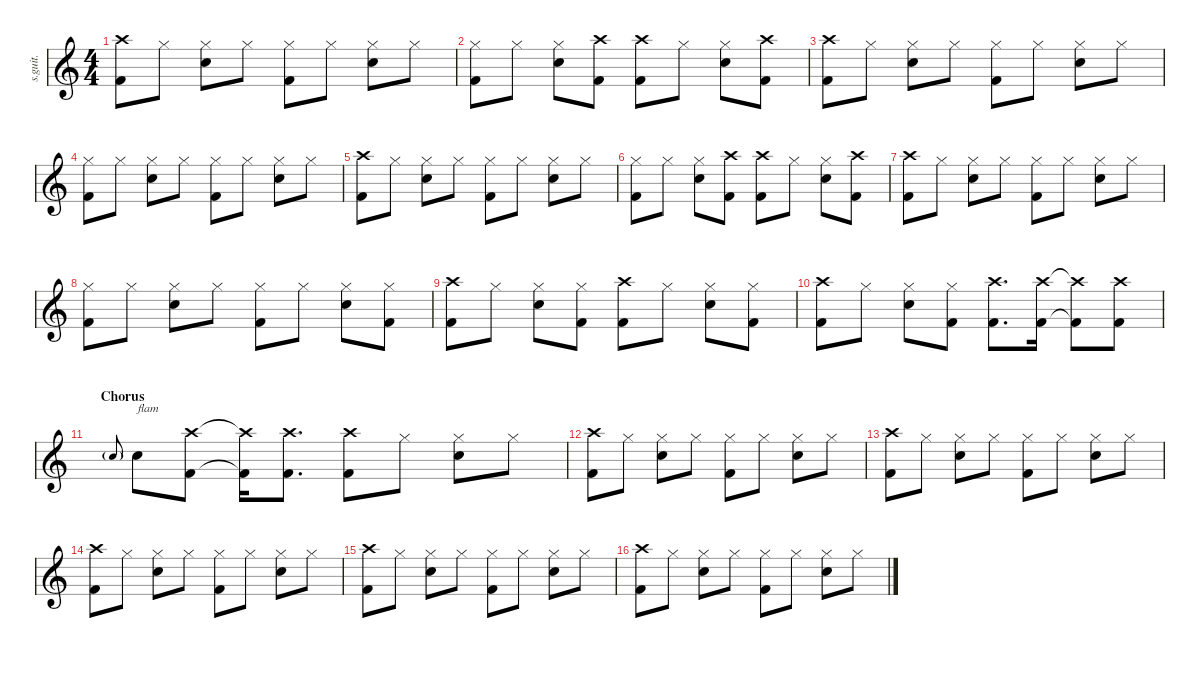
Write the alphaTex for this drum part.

\defaultSystemsLayout 4
\hideDynamics
\bracketExtendMode nobrackets
\track ("Phil Rudd - Drums" "s.guit.") {instrument percussion}
\staff {score}
\articulation defaults
\ts (4 4)
\tempo (95 hide)
\clef g2
\ks c
("Crash high (hit)" "Kick (hit) 2").8{lyrics (0 "") lyrics (1 "") lyrics (2 "") lyrics (3 "") lyrics (4 "") dy f} "Hi-Hat (closed)".8{lyrics (0 "") lyrics (1 "") lyrics (2 "") lyrics (3 "") lyrics (4 "")} ("Hi-Hat (closed)" "Snare (hit) 2").8{lyrics (0 "") lyrics (1 "") lyrics (2 "") lyrics (3 "") lyrics (4 "")} "Hi-Hat (closed)".8{lyrics (0 "") lyrics (1 "") lyrics (2 "") lyrics (3 "") lyrics (4 "")} ("Hi-Hat (closed)" "Kick (hit) 2").8{lyrics (0 "") lyrics (1 "") lyrics (2 "") lyrics (3 "") lyrics (4 "")} "Hi-Hat (closed)".8{lyrics (0 "") lyrics (1 "") lyrics (2 "") lyrics (3 "") lyrics (4 "")} ("Hi-Hat (closed)" "Snare (hit) 2").8{lyrics (0 "") lyrics (1 "") lyrics (2 "") lyrics (3 "") lyrics (4 "")} "Hi-Hat (closed)".8{lyrics (0 "") lyrics (1 "") lyrics (2 "") lyrics (3 "") lyrics (4 "")} |
("Hi-Hat (closed)" "Kick (hit) 2").8{lyrics (0 "") lyrics (1 "") lyrics (2 "") lyrics (3 "") lyrics (4 "")} "Hi-Hat (closed)".8{lyrics (0 "") lyrics (1 "") lyrics (2 "") lyrics (3 "") lyrics (4 "")} ("Hi-Hat (closed)" "Snare (hit) 2").8{lyrics (0 "") lyrics (1 "") lyrics (2 "") lyrics (3 "") lyrics (4 "")} ("Crash high (hit)" "Kick (hit) 2").8{lyrics (0 "") lyrics (1 "") lyrics (2 "") lyrics (3 "") lyrics (4 "")} ("Crash high (hit)" "Kick (hit) 2").8{lyrics (0 "") lyrics (1 "") lyrics (2 "") lyrics (3 "") lyrics (4 "")} "Hi-Hat (closed)".8{lyrics (0 "") lyrics (1 "") lyrics (2 "") lyrics (3 "") lyrics (4 "")} ("Hi-Hat (closed)" "Snare (hit) 2").8{lyrics (0 "") lyrics (1 "") lyrics (2 "") lyrics (3 "") lyrics (4 "")} ("Crash high (hit)" "Kick (hit) 2").8{lyrics (0 "") lyrics (1 "") lyrics (2 "") lyrics (3 "") lyrics (4 "")} |
("Crash high (hit)" "Kick (hit) 2").8{lyrics (0 "") lyrics (1 "") lyrics (2 "") lyrics (3 "") lyrics (4 "")} "Hi-Hat (closed)".8{lyrics (0 "") lyrics (1 "") lyrics (2 "") lyrics (3 "") lyrics (4 "")} ("Hi-Hat (closed)" "Snare (hit) 2").8{lyrics (0 "") lyrics (1 "") lyrics (2 "") lyrics (3 "") lyrics (4 "")} "Hi-Hat (closed)".8{lyrics (0 "") lyrics (1 "") lyrics (2 "") lyrics (3 "") lyrics (4 "")} ("Hi-Hat (closed)" "Kick (hit) 2").8{lyrics (0 "") lyrics (1 "") lyrics (2 "") lyrics (3 "") lyrics (4 "")} "Hi-Hat (closed)".8{lyrics (0 "") lyrics (1 "") lyrics (2 "") lyrics (3 "") lyrics (4 "")} ("Hi-Hat (closed)" "Snare (hit) 2").8{lyrics (0 "") lyrics (1 "") lyrics (2 "") lyrics (3 "") lyrics (4 "")} "Hi-Hat (closed)".8{lyrics (0 "") lyrics (1 "") lyrics (2 "") lyrics (3 "") lyrics (4 "")} |
("Hi-Hat (closed)" "Kick (hit) 2").8{lyrics (0 "") lyrics (1 "") lyrics (2 "") lyrics (3 "") lyrics (4 "")} "Hi-Hat (closed)".8{lyrics (0 "") lyrics (1 "") lyrics (2 "") lyrics (3 "") lyrics (4 "")} ("Hi-Hat (closed)" "Snare (hit) 2").8{lyrics (0 "") lyrics (1 "") lyrics (2 "") lyrics (3 "") lyrics (4 "")} "Hi-Hat (closed)".8{lyrics (0 "") lyrics (1 "") lyrics (2 "") lyrics (3 "") lyrics (4 "")} ("Hi-Hat (closed)" "Kick (hit) 2").8{lyrics (0 "") lyrics (1 "") lyrics (2 "") lyrics (3 "") lyrics (4 "")} "Hi-Hat (closed)".8{lyrics (0 "") lyrics (1 "") lyrics (2 "") lyrics (3 "") lyrics (4 "")} ("Hi-Hat (closed)" "Snare (hit) 2").8{lyrics (0 "") lyrics (1 "") lyrics (2 "") lyrics (3 "") lyrics (4 "")} "Hi-Hat (closed)".8{lyrics (0 "") lyrics (1 "") lyrics (2 "") lyrics (3 "") lyrics (4 "")} |
("Crash high (hit)" "Kick (hit) 2").8{lyrics (0 "") lyrics (1 "") lyrics (2 "") lyrics (3 "") lyrics (4 "")} "Hi-Hat (closed)".8{lyrics (0 "") lyrics (1 "") lyrics (2 "") lyrics (3 "") lyrics (4 "")} ("Hi-Hat (closed)" "Snare (hit) 2").8{lyrics (0 "") lyrics (1 "") lyrics (2 "") lyrics (3 "") lyrics (4 "")} "Hi-Hat (closed)".8{lyrics (0 "") lyrics (1 "") lyrics (2 "") lyrics (3 "") lyrics (4 "")} ("Hi-Hat (closed)" "Kick (hit) 2").8{lyrics (0 "") lyrics (1 "") lyrics (2 "") lyrics (3 "") lyrics (4 "")} "Hi-Hat (closed)".8{lyrics (0 "") lyrics (1 "") lyrics (2 "") lyrics (3 "") lyrics (4 "")} ("Hi-Hat (closed)" "Snare (hit) 2").8{lyrics (0 "") lyrics (1 "") lyrics (2 "") lyrics (3 "") lyrics (4 "")} "Hi-Hat (closed)".8{lyrics (0 "") lyrics (1 "") lyrics (2 "") lyrics (3 "") lyrics (4 "")} |
("Hi-Hat (closed)" "Kick (hit) 2").8{lyrics (0 "") lyrics (1 "") lyrics (2 "") lyrics (3 "") lyrics (4 "")} "Hi-Hat (closed)".8{lyrics (0 "") lyrics (1 "") lyrics (2 "") lyrics (3 "") lyrics (4 "")} ("Hi-Hat (closed)" "Snare (hit) 2").8{lyrics (0 "") lyrics (1 "") lyrics (2 "") lyrics (3 "") lyrics (4 "")} ("Crash high (hit)" "Kick (hit) 2").8{lyrics (0 "") lyrics (1 "") lyrics (2 "") lyrics (3 "") lyrics (4 "")} ("Crash high (hit)" "Kick (hit) 2").8{lyrics (0 "") lyrics (1 "") lyrics (2 "") lyrics (3 "") lyrics (4 "")} "Hi-Hat (closed)".8{lyrics (0 "") lyrics (1 "") lyrics (2 "") lyrics (3 "") lyrics (4 "")} ("Hi-Hat (closed)" "Snare (hit) 2").8{lyrics (0 "") lyrics (1 "") lyrics (2 "") lyrics (3 "") lyrics (4 "")} ("Crash high (hit)" "Kick (hit) 2").8{lyrics (0 "") lyrics (1 "") lyrics (2 "") lyrics (3 "") lyrics (4 "")} |
("Crash high (hit)" "Kick (hit) 2").8{lyrics (0 "") lyrics (1 "") lyrics (2 "") lyrics (3 "") lyrics (4 "")} "Hi-Hat (closed)".8{lyrics (0 "") lyrics (1 "") lyrics (2 "") lyrics (3 "") lyrics (4 "")} ("Hi-Hat (closed)" "Snare (hit) 2").8{lyrics (0 "") lyrics (1 "") lyrics (2 "") lyrics (3 "") lyrics (4 "")} "Hi-Hat (closed)".8{lyrics (0 "") lyrics (1 "") lyrics (2 "") lyrics (3 "") lyrics (4 "")} ("Hi-Hat (closed)" "Kick (hit) 2").8{lyrics (0 "") lyrics (1 "") lyrics (2 "") lyrics (3 "") lyrics (4 "")} "Hi-Hat (closed)".8{lyrics (0 "") lyrics (1 "") lyrics (2 "") lyrics (3 "") lyrics (4 "")} ("Hi-Hat (closed)" "Snare (hit) 2").8{lyrics (0 "") lyrics (1 "") lyrics (2 "") lyrics (3 "") lyrics (4 "")} "Hi-Hat (closed)".8{lyrics (0 "") lyrics (1 "") lyrics (2 "") lyrics (3 "") lyrics (4 "")} |
("Hi-Hat (closed)" "Kick (hit) 2").8{lyrics (0 "") lyrics (1 "") lyrics (2 "") lyrics (3 "") lyrics (4 "")} "Hi-Hat (closed)".8{lyrics (0 "") lyrics (1 "") lyrics (2 "") lyrics (3 "") lyrics (4 "")} ("Hi-Hat (closed)" "Snare (hit) 2").8{lyrics (0 "") lyrics (1 "") lyrics (2 "") lyrics (3 "") lyrics (4 "")} "Hi-Hat (closed)".8{lyrics (0 "") lyrics (1 "") lyrics (2 "") lyrics (3 "") lyrics (4 "")} ("Hi-Hat (closed)" "Kick (hit) 2").8{lyrics (0 "") lyrics (1 "") lyrics (2 "") lyrics (3 "") lyrics (4 "")} "Hi-Hat (closed)".8{lyrics (0 "") lyrics (1 "") lyrics (2 "") lyrics (3 "") lyrics (4 "")} ("Hi-Hat (closed)" "Snare (hit) 2").8{lyrics (0 "") lyrics (1 "") lyrics (2 "") lyrics (3 "") lyrics (4 "")} ("Hi-Hat (closed)" "Kick (hit) 2").8{lyrics (0 "") lyrics (1 "") lyrics (2 "") lyrics (3 "") lyrics (4 "")} |
\tempo (96 hide)
("Crash high (hit)" "Kick (hit) 2").8{lyrics (0 "") lyrics (1 "") lyrics (2 "") lyrics (3 "") lyrics (4 "")} "Hi-Hat (closed)".8{lyrics (0 "") lyrics (1 "") lyrics (2 "") lyrics (3 "") lyrics (4 "")} ("Hi-Hat (closed)" "Snare (hit) 2").8{lyrics (0 "") lyrics (1 "") lyrics (2 "") lyrics (3 "") lyrics (4 "")} ("Hi-Hat (closed)" "Kick (hit) 2").8{lyrics (0 "") lyrics (1 "") lyrics (2 "") lyrics (3 "") lyrics (4 "")} ("Crash high (hit)" "Kick (hit) 2").8{lyrics (0 "") lyrics (1 "") lyrics (2 "") lyrics (3 "") lyrics (4 "")} "Hi-Hat (closed)".8{lyrics (0 "") lyrics (1 "") lyrics (2 "") lyrics (3 "") lyrics (4 "")} ("Hi-Hat (closed)" "Snare (hit) 2").8{lyrics (0 "") lyrics (1 "") lyrics (2 "") lyrics (3 "") lyrics (4 "")} ("Hi-Hat (closed)" "Kick (hit) 2").8{lyrics (0 "") lyrics (1 "") lyrics (2 "") lyrics (3 "") lyrics (4 "")} |
("Crash high (hit)" "Kick (hit) 2").8{lyrics (0 "") lyrics (1 "") lyrics (2 "") lyrics (3 "") lyrics (4 "")} "Hi-Hat (closed)".8{lyrics (0 "") lyrics (1 "") lyrics (2 "") lyrics (3 "") lyrics (4 "")} ("Hi-Hat (closed)" "Snare (hit) 2").8{lyrics (0 "") lyrics (1 "") lyrics (2 "") lyrics (3 "") lyrics (4 "")} ("Hi-Hat (closed)" "Kick (hit) 2").8{lyrics (0 "") lyrics (1 "") lyrics (2 "") lyrics (3 "") lyrics (4 "")} ("Crash high (hit)" "Kick (hit) 2").8{d lyrics (0 "") lyrics (1 "") lyrics (2 "") lyrics (3 "") lyrics (4 "")} ("Crash high (hit)" "Kick (hit) 2").16{lyrics (0 "") lyrics (1 "") lyrics (2 "") lyrics (3 "") lyrics (4 "")} ("Crash high (hit)"{t} "Kick (hit) 2"{t}).8{lyrics (0 "") lyrics (1 "") lyrics (2 "") lyrics (3 "") lyrics (4 "")} ("Crash high (hit)" "Kick (hit) 2").8{lyrics (0 "") lyrics (1 "") lyrics (2 "") lyrics (3 "") lyrics (4 "")} |
\section ("" "Chorus")
"Snare (hit) 2"{g}.8{lyrics (0 "") lyrics (1 "") lyrics (2 "") lyrics (3 "") lyrics (4 "") gr onbeat} "Snare (hit) 2".8{txt "flam" lyrics (0 "") lyrics (1 "") lyrics (2 "") lyrics (3 "") lyrics (4 "")} ("Crash high (hit)" "Kick (hit) 2").8{lyrics (0 "") lyrics (1 "") lyrics (2 "") lyrics (3 "") lyrics (4 "")} ("Crash high (hit)"{t} "Kick (hit) 2"{t}).16{lyrics (0 "") lyrics (1 "") lyrics (2 "") lyrics (3 "") lyrics (4 "")} ("Crash high (hit)" "Kick (hit) 2").8{d lyrics (0 "") lyrics (1 "") lyrics (2 "") lyrics (3 "") lyrics (4 "")} ("Crash high (hit)" "Kick (hit) 2").8{lyrics (0 "") lyrics (1 "") lyrics (2 "") lyrics (3 "") lyrics (4 "")} "Hi-Hat (closed)".8{lyrics (0 "") lyrics (1 "") lyrics (2 "") lyrics (3 "") lyrics (4 "")} ("Hi-Hat (closed)" "Snare (hit) 2").8{lyrics (0 "") lyrics (1 "") lyrics (2 "") lyrics (3 "") lyrics (4 "")} "Hi-Hat (closed)".8{lyrics (0 "") lyrics (1 "") lyrics (2 "") lyrics (3 "") lyrics (4 "")} |
("Crash high (hit)" "Kick (hit) 2").8{lyrics (0 "") lyrics (1 "") lyrics (2 "") lyrics (3 "") lyrics (4 "")} "Hi-Hat (closed)".8{lyrics (0 "") lyrics (1 "") lyrics (2 "") lyrics (3 "") lyrics (4 "")} ("Hi-Hat (closed)" "Snare (hit) 2").8{lyrics (0 "") lyrics (1 "") lyrics (2 "") lyrics (3 "") lyrics (4 "")} "Hi-Hat (closed)".8{lyrics (0 "") lyrics (1 "") lyrics (2 "") lyrics (3 "") lyrics (4 "")} ("Hi-Hat (closed)" "Kick (hit) 2").8{lyrics (0 "") lyrics (1 "") lyrics (2 "") lyrics (3 "") lyrics (4 "")} "Hi-Hat (closed)".8{lyrics (0 "") lyrics (1 "") lyrics (2 "") lyrics (3 "") lyrics (4 "")} ("Hi-Hat (closed)" "Snare (hit) 2").8{lyrics (0 "") lyrics (1 "") lyrics (2 "") lyrics (3 "") lyrics (4 "")} "Hi-Hat (closed)".8{lyrics (0 "") lyrics (1 "") lyrics (2 "") lyrics (3 "") lyrics (4 "")} |
("Crash high (hit)" "Kick (hit) 2").8{lyrics (0 "") lyrics (1 "") lyrics (2 "") lyrics (3 "") lyrics (4 "")} "Hi-Hat (closed)".8{lyrics (0 "") lyrics (1 "") lyrics (2 "") lyrics (3 "") lyrics (4 "")} ("Hi-Hat (closed)" "Snare (hit) 2").8{lyrics (0 "") lyrics (1 "") lyrics (2 "") lyrics (3 "") lyrics (4 "")} "Hi-Hat (closed)".8{lyrics (0 "") lyrics (1 "") lyrics (2 "") lyrics (3 "") lyrics (4 "")} ("Hi-Hat (closed)" "Kick (hit) 2").8{lyrics (0 "") lyrics (1 "") lyrics (2 "") lyrics (3 "") lyrics (4 "")} "Hi-Hat (closed)".8{lyrics (0 "") lyrics (1 "") lyrics (2 "") lyrics (3 "") lyrics (4 "")} ("Hi-Hat (closed)" "Snare (hit) 2").8{lyrics (0 "") lyrics (1 "") lyrics (2 "") lyrics (3 "") lyrics (4 "")} "Hi-Hat (closed)".8{lyrics (0 "") lyrics (1 "") lyrics (2 "") lyrics (3 "") lyrics (4 "")} |
("Crash high (hit)" "Kick (hit) 2").8{lyrics (0 "") lyrics (1 "") lyrics (2 "") lyrics (3 "") lyrics (4 "")} "Hi-Hat (closed)".8{lyrics (0 "") lyrics (1 "") lyrics (2 "") lyrics (3 "") lyrics (4 "")} ("Hi-Hat (closed)" "Snare (hit) 2").8{lyrics (0 "") lyrics (1 "") lyrics (2 "") lyrics (3 "") lyrics (4 "")} "Hi-Hat (closed)".8{lyrics (0 "") lyrics (1 "") lyrics (2 "") lyrics (3 "") lyrics (4 "")} ("Hi-Hat (closed)" "Kick (hit) 2").8{lyrics (0 "") lyrics (1 "") lyrics (2 "") lyrics (3 "") lyrics (4 "")} "Hi-Hat (closed)".8{lyrics (0 "") lyrics (1 "") lyrics (2 "") lyrics (3 "") lyrics (4 "")} ("Hi-Hat (closed)" "Snare (hit) 2").8{lyrics (0 "") lyrics (1 "") lyrics (2 "") lyrics (3 "") lyrics (4 "")} "Hi-Hat (closed)".8{lyrics (0 "") lyrics (1 "") lyrics (2 "") lyrics (3 "") lyrics (4 "")} |
("Crash high (hit)" "Kick (hit) 2").8{lyrics (0 "") lyrics (1 "") lyrics (2 "") lyrics (3 "") lyrics (4 "")} "Hi-Hat (closed)".8{lyrics (0 "") lyrics (1 "") lyrics (2 "") lyrics (3 "") lyrics (4 "")} ("Hi-Hat (closed)" "Snare (hit) 2").8{lyrics (0 "") lyrics (1 "") lyrics (2 "") lyrics (3 "") lyrics (4 "")} "Hi-Hat (closed)".8{lyrics (0 "") lyrics (1 "") lyrics (2 "") lyrics (3 "") lyrics (4 "")} ("Hi-Hat (closed)" "Kick (hit) 2").8{lyrics (0 "") lyrics (1 "") lyrics (2 "") lyrics (3 "") lyrics (4 "")} "Hi-Hat (closed)".8{lyrics (0 "") lyrics (1 "") lyrics (2 "") lyrics (3 "") lyrics (4 "")} ("Hi-Hat (closed)" "Snare (hit) 2").8{lyrics (0 "") lyrics (1 "") lyrics (2 "") lyrics (3 "") lyrics (4 "")} "Hi-Hat (closed)".8{lyrics (0 "") lyrics (1 "") lyrics (2 "") lyrics (3 "") lyrics (4 "")} |
\tempo (97 hide)
("Crash high (hit)" "Kick (hit) 2").8{lyrics (0 "") lyrics (1 "") lyrics (2 "") lyrics (3 "") lyrics (4 "")} "Hi-Hat (closed)".8{lyrics (0 "") lyrics (1 "") lyrics (2 "") lyrics (3 "") lyrics (4 "")} ("Hi-Hat (closed)" "Snare (hit) 2").8{lyrics (0 "") lyrics (1 "") lyrics (2 "") lyrics (3 "") lyrics (4 "")} "Hi-Hat (closed)".8{lyrics (0 "") lyrics (1 "") lyrics (2 "") lyrics (3 "") lyrics (4 "")} ("Hi-Hat (closed)" "Kick (hit) 2").8{lyrics (0 "") lyrics (1 "") lyrics (2 "") lyrics (3 "") lyrics (4 "")} "Hi-Hat (closed)".8{lyrics (0 "") lyrics (1 "") lyrics (2 "") lyrics (3 "") lyrics (4 "")} ("Hi-Hat (closed)" "Snare (hit) 2").8{lyrics (0 "") lyrics (1 "") lyrics (2 "") lyrics (3 "") lyrics (4 "")} "Hi-Hat (closed)".8{lyrics (0 "") lyrics (1 "") lyrics (2 "") lyrics (3 "") lyrics (4 "")}
